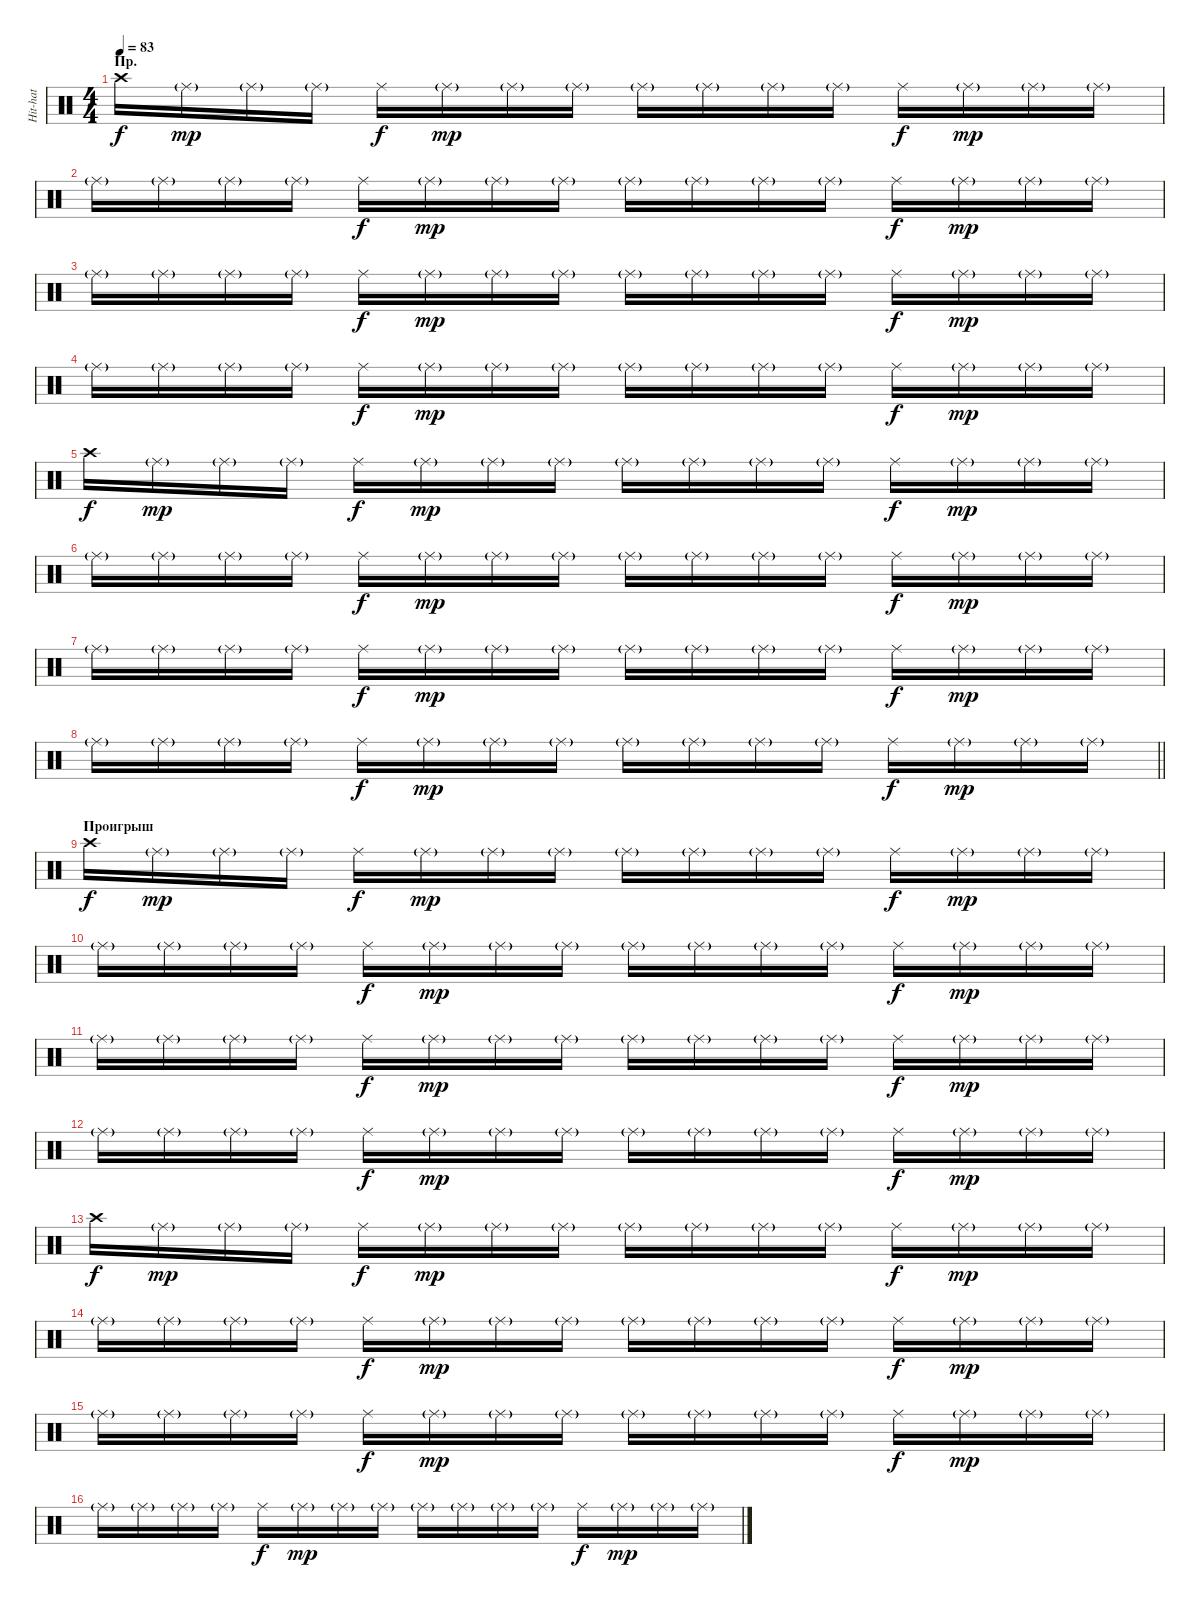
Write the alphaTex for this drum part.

\track ("Hit-hat" "Hit-hat") {instrument percussion}
\staff {score}
\articulation defaults
\ts (4 4)
\section ("" "Пр.")
\tempo 83
\clef neutral
\ks c "Crash high (hit)".16{dy f} "Ride (middle)"{g}.16{dy mp} "Ride (middle)"{g}.16 "Ride (middle)"{g}.16 "Ride (middle)".16{dy f} "Ride (middle)"{g}.16{dy mp} "Ride (middle)"{g}.16 "Ride (middle)"{g}.16 "Ride (middle)"{g}.16 "Ride (middle)"{g}.16 "Ride (middle)"{g}.16 "Ride (middle)"{g}.16 "Ride (middle)".16{dy f} "Ride (middle)"{g}.16{dy mp} "Ride (middle)"{g}.16 "Ride (middle)"{g}.16
|
"Ride (middle)"{g}.16 "Ride (middle)"{g}.16 "Ride (middle)"{g}.16 "Ride (middle)"{g}.16 "Ride (middle)".16{dy f} "Ride (middle)"{g}.16{dy mp} "Ride (middle)"{g}.16 "Ride (middle)"{g}.16 "Ride (middle)"{g}.16 "Ride (middle)"{g}.16 "Ride (middle)"{g}.16 "Ride (middle)"{g}.16 "Ride (middle)".16{dy f} "Ride (middle)"{g}.16{dy mp} "Ride (middle)"{g}.16 "Ride (middle)"{g}.16 |
"Ride (middle)"{g}.16 "Ride (middle)"{g}.16 "Ride (middle)"{g}.16 "Ride (middle)"{g}.16 "Ride (middle)".16{dy f} "Ride (middle)"{g}.16{dy mp} "Ride (middle)"{g}.16 "Ride (middle)"{g}.16 "Ride (middle)"{g}.16 "Ride (middle)"{g}.16 "Ride (middle)"{g}.16 "Ride (middle)"{g}.16 "Ride (middle)".16{dy f} "Ride (middle)"{g}.16{dy mp} "Ride (middle)"{g}.16 "Ride (middle)"{g}.16 |
"Ride (middle)"{g}.16 "Ride (middle)"{g}.16 "Ride (middle)"{g}.16 "Ride (middle)"{g}.16 "Ride (middle)".16{dy f} "Ride (middle)"{g}.16{dy mp} "Ride (middle)"{g}.16 "Ride (middle)"{g}.16 "Ride (middle)"{g}.16 "Ride (middle)"{g}.16 "Ride (middle)"{g}.16 "Ride (middle)"{g}.16 "Ride (middle)".16{dy f} "Ride (middle)"{g}.16{dy mp} "Ride (middle)"{g}.16 "Ride (middle)"{g}.16 |
"Crash high (hit)".16{dy f} "Ride (middle)"{g}.16{dy mp} "Ride (middle)"{g}.16 "Ride (middle)"{g}.16 "Ride (middle)".16{dy f} "Ride (middle)"{g}.16{dy mp} "Ride (middle)"{g}.16 "Ride (middle)"{g}.16 "Ride (middle)"{g}.16 "Ride (middle)"{g}.16 "Ride (middle)"{g}.16 "Ride (middle)"{g}.16 "Ride (middle)".16{dy f} "Ride (middle)"{g}.16{dy mp} "Ride (middle)"{g}.16 "Ride (middle)"{g}.16 |
"Ride (middle)"{g}.16 "Ride (middle)"{g}.16 "Ride (middle)"{g}.16 "Ride (middle)"{g}.16 "Ride (middle)".16{dy f} "Ride (middle)"{g}.16{dy mp} "Ride (middle)"{g}.16 "Ride (middle)"{g}.16 "Ride (middle)"{g}.16 "Ride (middle)"{g}.16 "Ride (middle)"{g}.16 "Ride (middle)"{g}.16 "Ride (middle)".16{dy f} "Ride (middle)"{g}.16{dy mp} "Ride (middle)"{g}.16 "Ride (middle)"{g}.16 |
"Ride (middle)"{g}.16 "Ride (middle)"{g}.16 "Ride (middle)"{g}.16 "Ride (middle)"{g}.16 "Ride (middle)".16{dy f} "Ride (middle)"{g}.16{dy mp} "Ride (middle)"{g}.16 "Ride (middle)"{g}.16 "Ride (middle)"{g}.16 "Ride (middle)"{g}.16 "Ride (middle)"{g}.16 "Ride (middle)"{g}.16 "Ride (middle)".16{dy f} "Ride (middle)"{g}.16{dy mp} "Ride (middle)"{g}.16 "Ride (middle)"{g}.16 |
\barLineRight lightlight "Ride (middle)"{g}.16 "Ride (middle)"{g}.16 "Ride (middle)"{g}.16 "Ride (middle)"{g}.16 "Ride (middle)".16{dy f} "Ride (middle)"{g}.16{dy mp} "Ride (middle)"{g}.16 "Ride (middle)"{g}.16 "Ride (middle)"{g}.16 "Ride (middle)"{g}.16 "Ride (middle)"{g}.16 "Ride (middle)"{g}.16 "Ride (middle)".16{dy f} "Ride (middle)"{g}.16{dy mp} "Ride (middle)"{g}.16 "Ride (middle)"{g}.16
|
\section ("" "Проигрыш")
"Crash high (hit)".16{dy f} "Ride (middle)"{g}.16{dy mp} "Ride (middle)"{g}.16 "Ride (middle)"{g}.16 "Ride (middle)".16{dy f} "Ride (middle)"{g}.16{dy mp} "Ride (middle)"{g}.16 "Ride (middle)"{g}.16 "Ride (middle)"{g}.16 "Ride (middle)"{g}.16 "Ride (middle)"{g}.16 "Ride (middle)"{g}.16 "Ride (middle)".16{dy f} "Ride (middle)"{g}.16{dy mp} "Ride (middle)"{g}.16 "Ride (middle)"{g}.16 |
"Ride (middle)"{g}.16 "Ride (middle)"{g}.16 "Ride (middle)"{g}.16 "Ride (middle)"{g}.16 "Ride (middle)".16{dy f} "Ride (middle)"{g}.16{dy mp} "Ride (middle)"{g}.16 "Ride (middle)"{g}.16 "Ride (middle)"{g}.16 "Ride (middle)"{g}.16 "Ride (middle)"{g}.16 "Ride (middle)"{g}.16 "Ride (middle)".16{dy f} "Ride (middle)"{g}.16{dy mp} "Ride (middle)"{g}.16 "Ride (middle)"{g}.16 |
"Ride (middle)"{g}.16 "Ride (middle)"{g}.16 "Ride (middle)"{g}.16 "Ride (middle)"{g}.16 "Ride (middle)".16{dy f} "Ride (middle)"{g}.16{dy mp} "Ride (middle)"{g}.16 "Ride (middle)"{g}.16 "Ride (middle)"{g}.16 "Ride (middle)"{g}.16 "Ride (middle)"{g}.16 "Ride (middle)"{g}.16 "Ride (middle)".16{dy f} "Ride (middle)"{g}.16{dy mp} "Ride (middle)"{g}.16 "Ride (middle)"{g}.16 |
"Ride (middle)"{g}.16 "Ride (middle)"{g}.16 "Ride (middle)"{g}.16 "Ride (middle)"{g}.16 "Ride (middle)".16{dy f} "Ride (middle)"{g}.16{dy mp} "Ride (middle)"{g}.16 "Ride (middle)"{g}.16 "Ride (middle)"{g}.16 "Ride (middle)"{g}.16 "Ride (middle)"{g}.16 "Ride (middle)"{g}.16 "Ride (middle)".16{dy f} "Ride (middle)"{g}.16{dy mp} "Ride (middle)"{g}.16 "Ride (middle)"{g}.16 |
"Crash high (hit)".16{dy f} "Ride (middle)"{g}.16{dy mp} "Ride (middle)"{g}.16 "Ride (middle)"{g}.16 "Ride (middle)".16{dy f} "Ride (middle)"{g}.16{dy mp} "Ride (middle)"{g}.16 "Ride (middle)"{g}.16 "Ride (middle)"{g}.16 "Ride (middle)"{g}.16 "Ride (middle)"{g}.16 "Ride (middle)"{g}.16 "Ride (middle)".16{dy f} "Ride (middle)"{g}.16{dy mp} "Ride (middle)"{g}.16 "Ride (middle)"{g}.16 |
"Ride (middle)"{g}.16 "Ride (middle)"{g}.16 "Ride (middle)"{g}.16 "Ride (middle)"{g}.16 "Ride (middle)".16{dy f} "Ride (middle)"{g}.16{dy mp} "Ride (middle)"{g}.16 "Ride (middle)"{g}.16 "Ride (middle)"{g}.16 "Ride (middle)"{g}.16 "Ride (middle)"{g}.16 "Ride (middle)"{g}.16 "Ride (middle)".16{dy f} "Ride (middle)"{g}.16{dy mp} "Ride (middle)"{g}.16 "Ride (middle)"{g}.16 |
"Ride (middle)"{g}.16 "Ride (middle)"{g}.16 "Ride (middle)"{g}.16 "Ride (middle)"{g}.16 "Ride (middle)".16{dy f} "Ride (middle)"{g}.16{dy mp} "Ride (middle)"{g}.16 "Ride (middle)"{g}.16 "Ride (middle)"{g}.16 "Ride (middle)"{g}.16 "Ride (middle)"{g}.16 "Ride (middle)"{g}.16 "Ride (middle)".16{dy f} "Ride (middle)"{g}.16{dy mp} "Ride (middle)"{g}.16 "Ride (middle)"{g}.16 |
"Ride (middle)"{g}.16 "Ride (middle)"{g}.16 "Ride (middle)"{g}.16 "Ride (middle)"{g}.16 "Ride (middle)".16{dy f} "Ride (middle)"{g}.16{dy mp} "Ride (middle)"{g}.16 "Ride (middle)"{g}.16 "Ride (middle)"{g}.16 "Ride (middle)"{g}.16 "Ride (middle)"{g}.16 "Ride (middle)"{g}.16 "Ride (middle)".16{dy f} "Ride (middle)"{g}.16{dy mp} "Ride (middle)"{g}.16 "Ride (middle)"{g}.16
